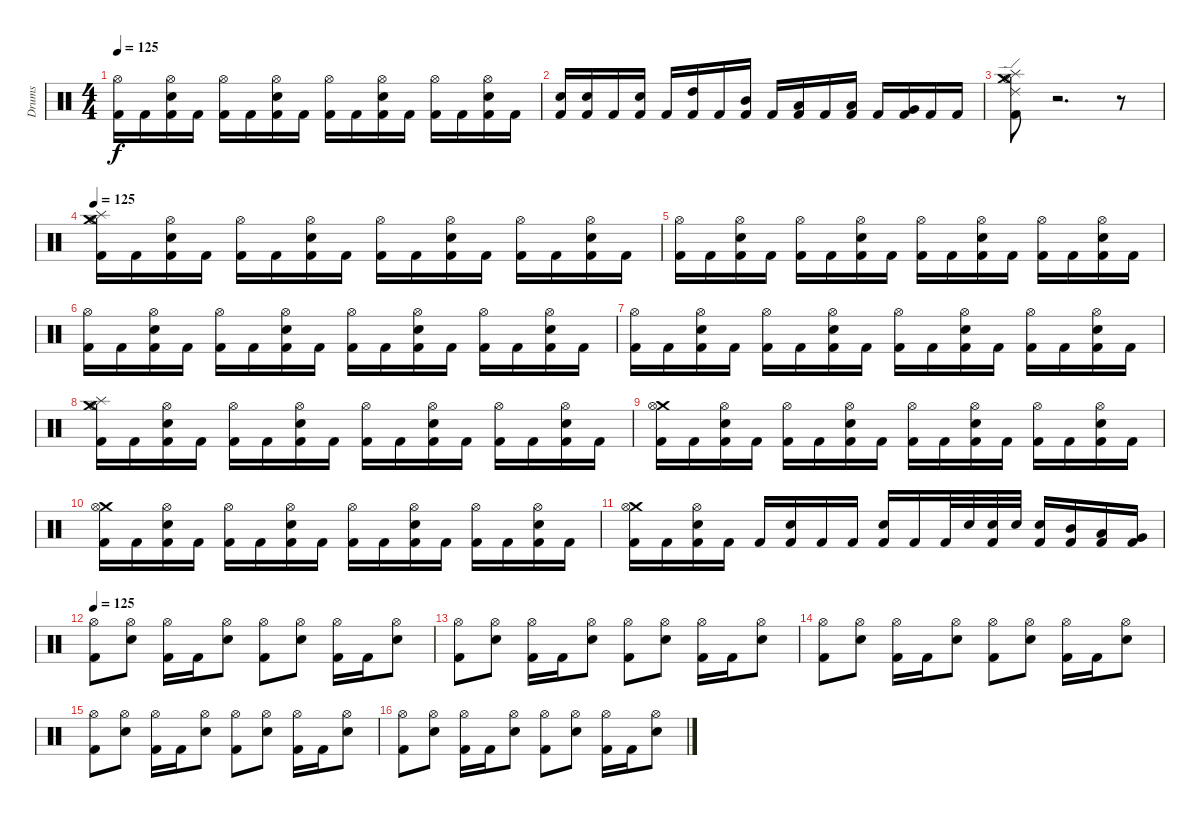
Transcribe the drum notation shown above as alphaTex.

\track ("Drums" "Drums") {instrument percussion}
\staff {score}
\articulation defaults
\ts (4 4)
\tempo 125
\clef neutral
\ks c
("Hi-Hat (open)" "Kick (hit) 2").16{dy f} "Kick (hit) 2".16 ("Hi-Hat (open)" "Electric Snare (hit)" "Kick (hit) 2").16 "Kick (hit) 2".16 ("Hi-Hat (open)" "Kick (hit) 2").16 "Kick (hit) 2".16 ("Hi-Hat (open)" "Electric Snare (hit)" "Kick (hit) 2").16 "Kick (hit) 2".16 ("Hi-Hat (open)" "Kick (hit) 2").16 "Kick (hit) 2".16 ("Hi-Hat (open)" "Electric Snare (hit)" "Kick (hit) 2").16 "Kick (hit) 2".16 ("Hi-Hat (open)" "Kick (hit) 2").16 "Kick (hit) 2".16 ("Hi-Hat (open)" "Electric Snare (hit)" "Kick (hit) 2").16 "Kick (hit) 2".16 |
("Electric Snare (hit)" "Kick (hit) 2").16 ("Electric Snare (hit)" "Kick (hit) 2").16 "Kick (hit) 2".16 ("Electric Snare (hit)" "Kick (hit) 2").16 "Kick (hit) 2".16 ("High Tom (hit)" "Kick (hit) 2").16 "Kick (hit) 2".16 ("Mid Tom (hit)" "Kick (hit) 2").16 "Kick (hit) 2".16 ("Low Tom (hit)" "Kick (hit) 2").16 "Kick (hit) 2".16 ("Low Tom (hit)" "Kick (hit) 2").16 "Kick (hit) 2".16 ("Very Low Tom (hit)" "Kick (hit) 2").16 "Kick (hit) 2".16 "Kick (hit) 2".16 |
("Hi-Hat (open)" "Ride (edge) 2" "Crash medium (hit)" "Splash (hit)" "Kick (hit) 2").8 r.2{d} r.8 |
\tempo 125
("Hi-Hat (open)" "Splash (hit)" "Crash medium (hit)" "Kick (hit) 2").16 "Kick (hit) 2".16 ("Hi-Hat (open)" "Electric Snare (hit)" "Kick (hit) 2").16 "Kick (hit) 2".16 ("Hi-Hat (open)" "Kick (hit) 2").16 "Kick (hit) 2".16 ("Hi-Hat (open)" "Electric Snare (hit)" "Kick (hit) 2").16 "Kick (hit) 2".16 ("Hi-Hat (open)" "Kick (hit) 2").16 "Kick (hit) 2".16 ("Hi-Hat (open)" "Electric Snare (hit)" "Kick (hit) 2").16 "Kick (hit) 2".16 ("Hi-Hat (open)" "Kick (hit) 2").16 "Kick (hit) 2".16 ("Hi-Hat (open)" "Electric Snare (hit)" "Kick (hit) 2").16 "Kick (hit) 2".16 |
("Hi-Hat (open)" "Kick (hit) 2").16 "Kick (hit) 2".16 ("Hi-Hat (open)" "Electric Snare (hit)" "Kick (hit) 2").16 "Kick (hit) 2".16 ("Hi-Hat (open)" "Kick (hit) 2").16 "Kick (hit) 2".16 ("Hi-Hat (open)" "Electric Snare (hit)" "Kick (hit) 2").16 "Kick (hit) 2".16 ("Hi-Hat (open)" "Kick (hit) 2").16 "Kick (hit) 2".16 ("Hi-Hat (open)" "Electric Snare (hit)" "Kick (hit) 2").16 "Kick (hit) 2".16 ("Hi-Hat (open)" "Kick (hit) 2").16 "Kick (hit) 2".16 ("Hi-Hat (open)" "Electric Snare (hit)" "Kick (hit) 2").16 "Kick (hit) 2".16 |
("Hi-Hat (open)" "Kick (hit) 2").16 "Kick (hit) 2".16 ("Hi-Hat (open)" "Electric Snare (hit)" "Kick (hit) 2").16 "Kick (hit) 2".16 ("Hi-Hat (open)" "Kick (hit) 2").16 "Kick (hit) 2".16 ("Hi-Hat (open)" "Electric Snare (hit)" "Kick (hit) 2").16 "Kick (hit) 2".16 ("Hi-Hat (open)" "Kick (hit) 2").16 "Kick (hit) 2".16 ("Hi-Hat (open)" "Electric Snare (hit)" "Kick (hit) 2").16 "Kick (hit) 2".16 ("Hi-Hat (open)" "Kick (hit) 2").16 "Kick (hit) 2".16 ("Hi-Hat (open)" "Electric Snare (hit)" "Kick (hit) 2").16 "Kick (hit) 2".16 |
("Hi-Hat (open)" "Kick (hit) 2").16 "Kick (hit) 2".16 ("Hi-Hat (open)" "Electric Snare (hit)" "Kick (hit) 2").16 "Kick (hit) 2".16 ("Hi-Hat (open)" "Kick (hit) 2").16 "Kick (hit) 2".16 ("Hi-Hat (open)" "Electric Snare (hit)" "Kick (hit) 2").16 "Kick (hit) 2".16 ("Hi-Hat (open)" "Kick (hit) 2").16 "Kick (hit) 2".16 ("Hi-Hat (open)" "Electric Snare (hit)" "Kick (hit) 2").16 "Kick (hit) 2".16 ("Hi-Hat (open)" "Kick (hit) 2").16 "Kick (hit) 2".16 ("Hi-Hat (open)" "Electric Snare (hit)" "Kick (hit) 2").16 "Kick (hit) 2".16 |
("Hi-Hat (open)" "Splash (hit)" "Crash medium (hit)" "Kick (hit) 2").16 "Kick (hit) 2".16 ("Hi-Hat (open)" "Electric Snare (hit)" "Kick (hit) 2").16 "Kick (hit) 2".16 ("Hi-Hat (open)" "Kick (hit) 2").16 "Kick (hit) 2".16 ("Hi-Hat (open)" "Electric Snare (hit)" "Kick (hit) 2").16 "Kick (hit) 2".16 ("Hi-Hat (open)" "Kick (hit) 2").16 "Kick (hit) 2".16 ("Hi-Hat (open)" "Electric Snare (hit)" "Kick (hit) 2").16 "Kick (hit) 2".16 ("Hi-Hat (open)" "Kick (hit) 2").16 "Kick (hit) 2".16 ("Hi-Hat (open)" "Electric Snare (hit)" "Kick (hit) 2").16 "Kick (hit) 2".16 |
("Crash medium (hit)" "Hi-Hat (open)" "Kick (hit) 2").16 "Kick (hit) 2".16 ("Hi-Hat (open)" "Electric Snare (hit)" "Kick (hit) 2").16 "Kick (hit) 2".16 ("Hi-Hat (open)" "Kick (hit) 2").16 "Kick (hit) 2".16 ("Hi-Hat (open)" "Electric Snare (hit)" "Kick (hit) 2").16 "Kick (hit) 2".16 ("Hi-Hat (open)" "Kick (hit) 2").16 "Kick (hit) 2".16 ("Hi-Hat (open)" "Electric Snare (hit)" "Kick (hit) 2").16 "Kick (hit) 2".16 ("Hi-Hat (open)" "Kick (hit) 2").16 "Kick (hit) 2".16 ("Hi-Hat (open)" "Electric Snare (hit)" "Kick (hit) 2").16 "Kick (hit) 2".16 |
("Crash medium (hit)" "Hi-Hat (open)" "Kick (hit) 2").16 "Kick (hit) 2".16 ("Hi-Hat (open)" "Electric Snare (hit)" "Kick (hit) 2").16 "Kick (hit) 2".16 ("Hi-Hat (open)" "Kick (hit) 2").16 "Kick (hit) 2".16 ("Hi-Hat (open)" "Electric Snare (hit)" "Kick (hit) 2").16 "Kick (hit) 2".16 ("Hi-Hat (open)" "Kick (hit) 2").16 "Kick (hit) 2".16 ("Hi-Hat (open)" "Electric Snare (hit)" "Kick (hit) 2").16 "Kick (hit) 2".16 ("Hi-Hat (open)" "Kick (hit) 2").16 "Kick (hit) 2".16 ("Hi-Hat (open)" "Electric Snare (hit)" "Kick (hit) 2").16 "Kick (hit) 2".16 |
("Crash medium (hit)" "Hi-Hat (open)" "Kick (hit) 2").16 "Kick (hit) 2".16 ("Hi-Hat (open)" "Electric Snare (hit)" "Kick (hit) 2").16 "Kick (hit) 2".16 "Kick (hit) 2".16 ("Electric Snare (hit)" "Kick (hit) 2").16 "Kick (hit) 2".16 "Kick (hit) 2".16 ("Electric Snare (hit)" "Kick (hit) 2").16 "Kick (hit) 2".16 "Kick (hit) 2".32 "Electric Snare (hit)".32 ("Electric Snare (hit)" "Kick (hit) 2").32 "Electric Snare (hit)".32 ("Electric Snare (hit)" "Kick (hit) 2").16 ("Mid Tom (hit)" "Kick (hit) 2").16 ("Low Tom (hit)" "Kick (hit) 2").16 ("Very Low Tom (hit)" "Kick (hit) 2").16 |
\tempo 125
("Hi-Hat (open)" "Kick (hit) 2").8 ("Hi-Hat (open)" "Electric Snare (hit)").8 ("Hi-Hat (open)" "Kick (hit) 2").16 "Kick (hit) 2".16 ("Hi-Hat (open)" "Electric Snare (hit)").8 ("Hi-Hat (open)" "Kick (hit) 2").8 ("Hi-Hat (open)" "Electric Snare (hit)").8 ("Hi-Hat (open)" "Kick (hit) 2").16 "Kick (hit) 2".16 ("Hi-Hat (open)" "Electric Snare (hit)").8 |
("Hi-Hat (open)" "Kick (hit) 2").8 ("Hi-Hat (open)" "Electric Snare (hit)").8 ("Hi-Hat (open)" "Kick (hit) 2").16 "Kick (hit) 2".16 ("Hi-Hat (open)" "Electric Snare (hit)").8 ("Hi-Hat (open)" "Kick (hit) 2").8 ("Hi-Hat (open)" "Electric Snare (hit)").8 ("Hi-Hat (open)" "Kick (hit) 2").16 "Kick (hit) 2".16 ("Hi-Hat (open)" "Electric Snare (hit)").8 |
("Hi-Hat (open)" "Kick (hit) 2").8 ("Hi-Hat (open)" "Electric Snare (hit)").8 ("Hi-Hat (open)" "Kick (hit) 2").16 "Kick (hit) 2".16 ("Hi-Hat (open)" "Electric Snare (hit)").8 ("Hi-Hat (open)" "Kick (hit) 2").8 ("Hi-Hat (open)" "Electric Snare (hit)").8 ("Hi-Hat (open)" "Kick (hit) 2").16 "Kick (hit) 2".16 ("Hi-Hat (open)" "Electric Snare (hit)").8 |
("Hi-Hat (open)" "Kick (hit) 2").8 ("Hi-Hat (open)" "Electric Snare (hit)").8 ("Hi-Hat (open)" "Kick (hit) 2").16 "Kick (hit) 2".16 ("Hi-Hat (open)" "Electric Snare (hit)").8 ("Hi-Hat (open)" "Kick (hit) 2").8 ("Hi-Hat (open)" "Electric Snare (hit)").8 ("Hi-Hat (open)" "Kick (hit) 2").16 "Kick (hit) 2".16 ("Hi-Hat (open)" "Electric Snare (hit)").8 |
("Hi-Hat (open)" "Kick (hit) 2").8 ("Hi-Hat (open)" "Electric Snare (hit)").8 ("Hi-Hat (open)" "Kick (hit) 2").16 "Kick (hit) 2".16 ("Hi-Hat (open)" "Electric Snare (hit)").8 ("Hi-Hat (open)" "Kick (hit) 2").8 ("Hi-Hat (open)" "Electric Snare (hit)").8 ("Hi-Hat (open)" "Kick (hit) 2").16 "Kick (hit) 2".16 ("Hi-Hat (open)" "Electric Snare (hit)").8
